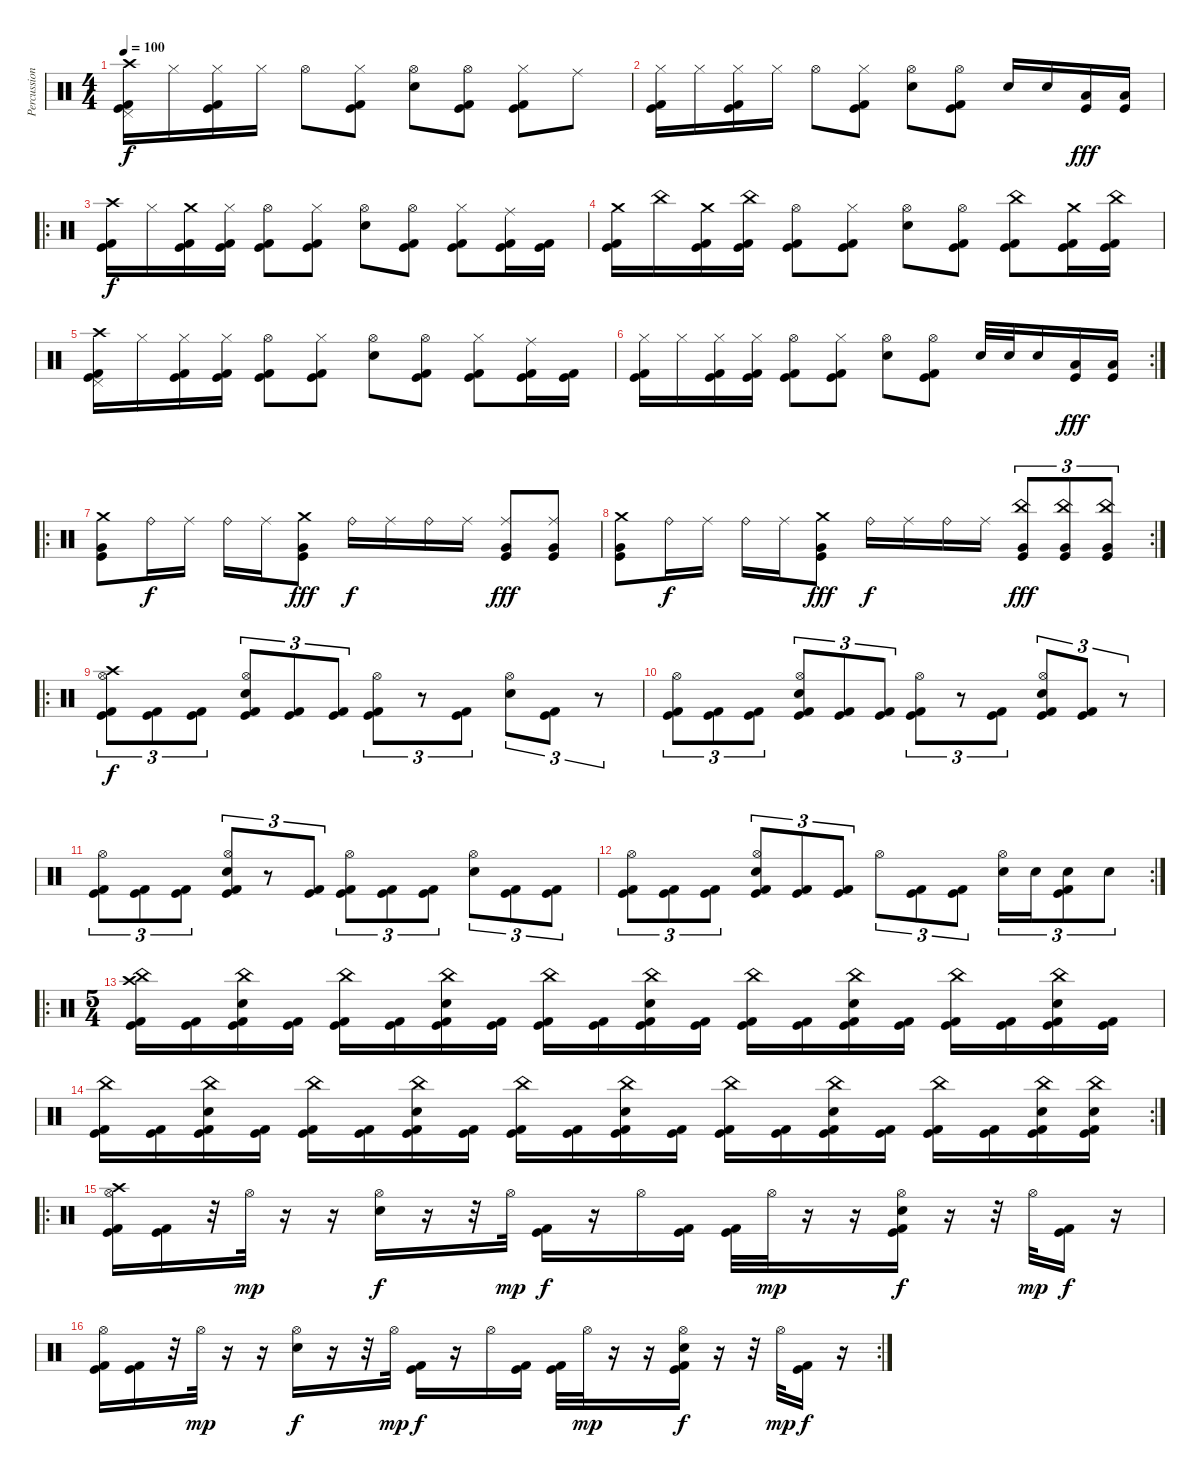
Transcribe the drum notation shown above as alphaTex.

\track ("Percussion" "Percussion") {instrument percussion}
\staff {score}
\articulation defaults
\ts (4 4)
\tempo 100
\clef neutral
\ks c
("Pedal Hi-Hat (hit)" "Crash high (hit)" "Kick (hit) 2" "Kick (hit)").16{dy f} "Hi-Hat (closed)".16 ("Hi-Hat (closed)" "Kick (hit) 2" "Kick (hit)").16 "Hi-Hat (closed)".16 "Hi-Hat (open)".8 ("Hi-Hat (closed)" "Kick (hit) 2" "Kick (hit)").8 ("Hi-Hat (open)" "Snare (hit) 2").8 ("Hi-Hat (open)" "Kick (hit) 2" "Kick (hit)").8 ("Hi-Hat (closed)" "Kick (hit) 2" "Kick (hit)").8 "Ride (middle)".8 |
("Hi-Hat (closed)" "Kick (hit) 2" "Kick (hit)").16 "Hi-Hat (closed)".16 ("Hi-Hat (closed)" "Kick (hit) 2" "Kick (hit)").16 "Hi-Hat (closed)".16 "Hi-Hat (open)".8 ("Hi-Hat (closed)" "Kick (hit) 2" "Kick (hit)").8 ("Hi-Hat (open)" "Snare (hit) 2").8 ("Hi-Hat (open)" "Kick (hit) 2" "Kick (hit)").8 "Snare (hit) 2".16 "Snare (hit) 2".16 ("Low Tom (hit)" "Kick (hit)").16{dy fff} ("Low Tom (hit)" "Kick (hit)").16 |
\ro
("Crash high (hit)" "Kick (hit) 2" "Kick (hit)").16{dy f} "Hi-Hat (closed)".16 ("Crash medium (hit)" "Kick (hit) 2" "Kick (hit)").16 ("Hi-Hat (closed)" "Kick (hit) 2" "Kick (hit)").16 ("Hi-Hat (open)" "Kick (hit) 2" "Kick (hit)").8 ("Hi-Hat (closed)" "Kick (hit) 2" "Kick (hit)").8 ("Hi-Hat (open)" "Snare (hit) 2").8 ("Hi-Hat (open)" "Kick (hit) 2" "Kick (hit)").8 ("Hi-Hat (closed)" "Kick (hit) 2" "Kick (hit)").8 ("Ride (middle)" "Kick (hit) 2" "Kick (hit)").16 ("Kick (hit) 2" "Kick (hit)").16 |
("Crash medium (hit)" "Kick (hit) 2" "Kick (hit)").16 "China (hit)".16 ("Crash medium (hit)" "Kick (hit) 2" "Kick (hit)").16 ("China (hit)" "Kick (hit) 2" "Kick (hit)").16 ("Hi-Hat (open)" "Kick (hit) 2" "Kick (hit)").8 ("Hi-Hat (closed)" "Kick (hit) 2" "Kick (hit)").8 ("Hi-Hat (open)" "Snare (hit) 2").8 ("Hi-Hat (open)" "Kick (hit) 2" "Kick (hit)").8 ("China (hit)" "Kick (hit) 2" "Kick (hit)").8 ("Crash medium (hit)" "Kick (hit) 2" "Kick (hit)").16 ("China (hit)" "Kick (hit) 2" "Kick (hit)").16 |
("Pedal Hi-Hat (hit)" "Crash high (hit)" "Kick (hit) 2" "Kick (hit)").16 "Hi-Hat (closed)".16 ("Hi-Hat (closed)" "Kick (hit) 2" "Kick (hit)").16 ("Hi-Hat (closed)" "Kick (hit) 2" "Kick (hit)").16 ("Hi-Hat (open)" "Kick (hit) 2" "Kick (hit)").8 ("Hi-Hat (closed)" "Kick (hit) 2" "Kick (hit)").8 ("Hi-Hat (open)" "Snare (hit) 2").8 ("Hi-Hat (open)" "Kick (hit) 2" "Kick (hit)").8 ("Hi-Hat (closed)" "Kick (hit) 2" "Kick (hit)").8 ("Ride (middle)" "Kick (hit) 2" "Kick (hit)").16 ("Kick (hit) 2" "Kick (hit)").16 |
\rc 2
("Hi-Hat (closed)" "Kick (hit) 2" "Kick (hit)").16 "Hi-Hat (closed)".16 ("Hi-Hat (closed)" "Kick (hit) 2" "Kick (hit)").16 ("Hi-Hat (closed)" "Kick (hit) 2" "Kick (hit)").16 ("Hi-Hat (open)" "Kick (hit) 2" "Kick (hit)").8 ("Hi-Hat (closed)" "Kick (hit) 2" "Kick (hit)").8 ("Hi-Hat (open)" "Snare (hit) 2").8 ("Hi-Hat (open)" "Kick (hit) 2" "Kick (hit)").8 "Snare (hit) 2".32 "Snare (hit) 2".32 "Snare (hit) 2".16 ("Low Tom (hit)" "Kick (hit)").16{dy fff} ("Low Tom (hit)" "Kick (hit)").16 |
\ro
("Crash medium (hit)" "Very Low Tom (hit)" "Kick (hit)").8 "Ride (bell)".16{dy f} "Ride (middle)".16 "Ride (bell)".16 "Ride (middle)".16 ("Crash medium (hit)" "Very Low Tom (hit)" "Kick (hit)").8{dy fff} "Ride (bell)".16{dy f} "Ride (middle)".16 "Ride (bell)".16 "Ride (middle)".16 ("Ride (middle)" "Very Low Tom (hit)" "Kick (hit)").8{dy fff} ("Ride (middle)" "Very Low Tom (hit)" "Kick (hit)").8 |
\rc 2
("Crash medium (hit)" "Very Low Tom (hit)" "Kick (hit)").8 "Ride (bell)".16{dy f} "Ride (middle)".16 "Ride (bell)".16 "Ride (middle)".16 ("Crash medium (hit)" "Very Low Tom (hit)" "Kick (hit)").8{dy fff} "Ride (bell)".16{dy f} "Ride (middle)".16 "Ride (bell)".16 "Ride (middle)".16 ("China (hit)" "Very Low Tom (hit)" "Kick (hit)").8{tu (3 2) dy fff} ("China (hit)" "Very Low Tom (hit)" "Kick (hit)").8{tu (3 2)} ("China (hit)" "Very Low Tom (hit)" "Kick (hit)").8{tu (3 2)} |
\ro
("Hi-Hat (open)" "Crash high (hit)" "Kick (hit) 2" "Kick (hit)").8{tu (3 2) dy f} ("Kick (hit) 2" "Kick (hit)").8{tu (3 2)} ("Kick (hit) 2" "Kick (hit)").8{tu (3 2)} ("Hi-Hat (open)" "Snare (hit) 2" "Kick (hit) 2" "Kick (hit)").8{tu (3 2)} ("Kick (hit) 2" "Kick (hit)").8{tu (3 2)} ("Kick (hit) 2" "Kick (hit)").8{tu (3 2)} ("Hi-Hat (open)" "Kick (hit) 2" "Kick (hit)").8{tu (3 2)} r.8{tu (3 2)} ("Kick (hit) 2" "Kick (hit)").8{tu (3 2)} ("Hi-Hat (open)" "Snare (hit) 2").8{tu (3 2)} ("Kick (hit) 2" "Kick (hit)").8{tu (3 2)} r.8{tu (3 2)} |
("Hi-Hat (open)" "Kick (hit) 2" "Kick (hit)").8{tu (3 2)} ("Kick (hit) 2" "Kick (hit)").8{tu (3 2)} ("Kick (hit) 2" "Kick (hit)").8{tu (3 2)} ("Hi-Hat (open)" "Snare (hit) 2" "Kick (hit) 2" "Kick (hit)").8{tu (3 2)} ("Kick (hit) 2" "Kick (hit)").8{tu (3 2)} ("Kick (hit) 2" "Kick (hit)").8{tu (3 2)} ("Hi-Hat (open)" "Kick (hit) 2" "Kick (hit)").8{tu (3 2)} r.8{tu (3 2)} ("Kick (hit) 2" "Kick (hit)").8{tu (3 2)} ("Hi-Hat (open)" "Snare (hit) 2" "Kick (hit) 2" "Kick (hit)").8{tu (3 2)} ("Kick (hit) 2" "Kick (hit)").8{tu (3 2)} r.8{tu (3 2)} |
("Hi-Hat (open)" "Kick (hit) 2" "Kick (hit)").8{tu (3 2)} ("Kick (hit) 2" "Kick (hit)").8{tu (3 2)} ("Kick (hit) 2" "Kick (hit)").8{tu (3 2)} ("Hi-Hat (open)" "Snare (hit) 2" "Kick (hit) 2" "Kick (hit)").8{tu (3 2)} r.8{tu (3 2)} ("Kick (hit) 2" "Kick (hit)").8{tu (3 2)} ("Hi-Hat (open)" "Kick (hit) 2" "Kick (hit)").8{tu (3 2)} ("Kick (hit) 2" "Kick (hit)").8{tu (3 2)} ("Kick (hit) 2" "Kick (hit)").8{tu (3 2)} ("Hi-Hat (open)" "Snare (hit) 2").8{tu (3 2)} ("Kick (hit) 2" "Kick (hit)").8{tu (3 2)} ("Kick (hit) 2" "Kick (hit)").8{tu (3 2)} |
\rc 2
("Hi-Hat (open)" "Kick (hit) 2" "Kick (hit)").8{tu (3 2)} ("Kick (hit) 2" "Kick (hit)").8{tu (3 2)} ("Kick (hit) 2" "Kick (hit)").8{tu (3 2)} ("Hi-Hat (open)" "Snare (hit) 2" "Kick (hit) 2" "Kick (hit)").8{tu (3 2)} ("Kick (hit) 2" "Kick (hit)").8{tu (3 2)} ("Kick (hit) 2" "Kick (hit)").8{tu (3 2)} "Hi-Hat (open)".8{tu (3 2)} ("Kick (hit) 2" "Kick (hit)").8{tu (3 2)} ("Kick (hit) 2" "Kick (hit)").8{tu (3 2)} ("Hi-Hat (open)" "Snare (hit) 2").16{tu (3 2)} "Snare (hit) 2".16{tu (3 2)} ("Snare (hit) 2" "Kick (hit) 2" "Kick (hit)").8{tu (3 2)} "Snare (hit) 2".8{tu (3 2)} |
\ro
\ts (5 4)
("China (hit)" "Crash high (hit)" "Kick (hit) 2" "Kick (hit)").16 ("Kick (hit) 2" "Kick (hit)").16 ("China (hit)" "Snare (hit) 2" "Kick (hit) 2" "Kick (hit)").16 ("Kick (hit) 2" "Kick (hit)").16 ("China (hit)" "Kick (hit) 2" "Kick (hit)").16 ("Kick (hit) 2" "Kick (hit)").16 ("China (hit)" "Snare (hit) 2" "Kick (hit) 2" "Kick (hit)").16 ("Kick (hit) 2" "Kick (hit)").16 ("China (hit)" "Kick (hit) 2" "Kick (hit)").16 ("Kick (hit) 2" "Kick (hit)").16 ("China (hit)" "Snare (hit) 2" "Kick (hit) 2" "Kick (hit)").16 ("Kick (hit) 2" "Kick (hit)").16 ("China (hit)" "Kick (hit) 2" "Kick (hit)").16 ("Kick (hit) 2" "Kick (hit)").16 ("China (hit)" "Snare (hit) 2" "Kick (hit) 2" "Kick (hit)").16 ("Kick (hit) 2" "Kick (hit)").16 ("China (hit)" "Kick (hit) 2" "Kick (hit)").16 ("Kick (hit) 2" "Kick (hit)").16 ("China (hit)" "Snare (hit) 2" "Kick (hit) 2" "Kick (hit)").16 ("Kick (hit) 2" "Kick (hit)").16 |
\rc 2
("China (hit)" "Kick (hit) 2" "Kick (hit)").16 ("Kick (hit) 2" "Kick (hit)").16 ("China (hit)" "Snare (hit) 2" "Kick (hit) 2" "Kick (hit)").16 ("Kick (hit) 2" "Kick (hit)").16 ("China (hit)" "Kick (hit) 2" "Kick (hit)").16 ("Kick (hit) 2" "Kick (hit)").16 ("China (hit)" "Snare (hit) 2" "Kick (hit) 2" "Kick (hit)").16 ("Kick (hit) 2" "Kick (hit)").16 ("China (hit)" "Kick (hit) 2" "Kick (hit)").16 ("Kick (hit) 2" "Kick (hit)").16 ("China (hit)" "Snare (hit) 2" "Kick (hit) 2" "Kick (hit)").16 ("Kick (hit) 2" "Kick (hit)").16 ("China (hit)" "Kick (hit) 2" "Kick (hit)").16 ("Kick (hit) 2" "Kick (hit)").16 ("China (hit)" "Snare (hit) 2" "Kick (hit) 2" "Kick (hit)").16 ("Kick (hit) 2" "Kick (hit)").16 ("China (hit)" "Kick (hit) 2" "Kick (hit)").16 ("Kick (hit) 2" "Kick (hit)").16 ("China (hit)" "Snare (hit) 2" "Kick (hit) 2" "Kick (hit)").16 ("China (hit)" "Snare (hit) 2" "Kick (hit) 2" "Kick (hit)").16 |
\ro
("Hi-Hat (open)" "Crash high (hit)" "Kick (hit) 2" "Kick (hit)").16 ("Kick (hit) 2" "Kick (hit)").16 r.32 "Hi-Hat (open)".32{dy mp} r.16 r.16 ("Hi-Hat (open)" "Snare (hit) 2").16{dy f} r.16 r.32 "Hi-Hat (open)".32{dy mp} ("Kick (hit) 2" "Kick (hit)").16{dy f} r.16 "Hi-Hat (open)".16 ("Kick (hit) 2" "Kick (hit)").16 ("Kick (hit) 2" "Kick (hit)").32 "Hi-Hat (open)".32{dy mp} r.16 r.16 ("Hi-Hat (open)" "Snare (hit) 2" "Kick (hit) 2" "Kick (hit)").16{dy f} r.16 r.32 "Hi-Hat (open)".32{dy mp} ("Kick (hit) 2" "Kick (hit)").16{dy f} r.16 |
\rc 2
("Hi-Hat (open)" "Kick (hit) 2" "Kick (hit)").16 ("Kick (hit) 2" "Kick (hit)").16 r.32 "Hi-Hat (open)".32{dy mp} r.16 r.16 ("Hi-Hat (open)" "Snare (hit) 2").16{dy f} r.16 r.32 "Hi-Hat (open)".32{dy mp} ("Kick (hit) 2" "Kick (hit)").16{dy f} r.16 "Hi-Hat (open)".16 ("Kick (hit) 2" "Kick (hit)").16 ("Kick (hit) 2" "Kick (hit)").32 "Hi-Hat (open)".32{dy mp} r.16 r.16 ("Hi-Hat (open)" "Snare (hit) 2" "Kick (hit) 2" "Kick (hit)").16{dy f} r.16 r.32 "Hi-Hat (open)".32{dy mp} ("Kick (hit) 2" "Kick (hit)").16{dy f} r.16
